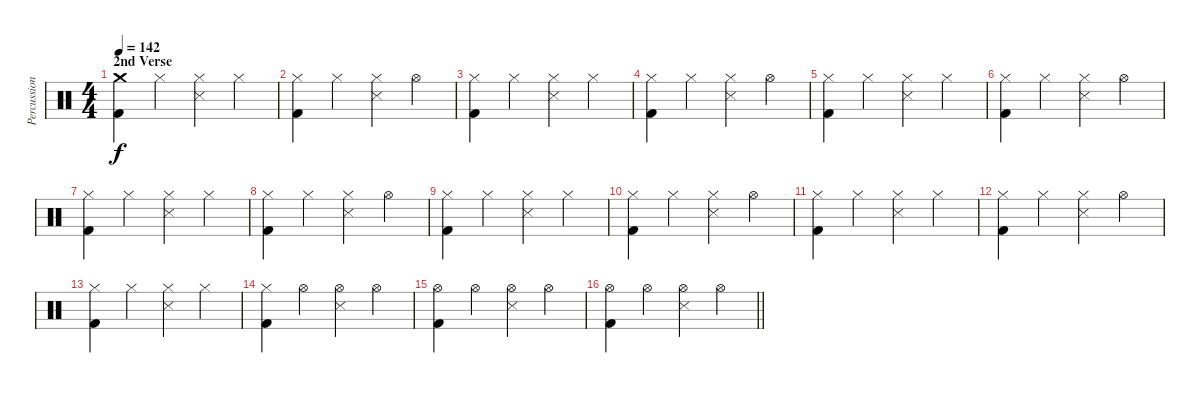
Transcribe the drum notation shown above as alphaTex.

\track ("Percussions" "Percussion") {instrument percussion}
\staff {score}
\articulation defaults
\ts (4 4)
\section ("" "2nd Verse")
\tempo 142
\clef neutral
\ks c
("Crash medium (hit)" "Kick (hit) 2").4{dy f} "Hi-Hat (closed)".4 ("Hi-Hat (closed)" "Metronome (hit)").4 "Hi-Hat (closed)".4 |
("Hi-Hat (closed)" "Kick (hit) 2").4 "Hi-Hat (closed)".4 ("Hi-Hat (closed)" "Metronome (hit)").4 "Hi-Hat (open)".4 |
("Hi-Hat (closed)" "Kick (hit) 2").4 "Hi-Hat (closed)".4 ("Hi-Hat (closed)" "Metronome (hit)").4 "Hi-Hat (closed)".4 |
("Hi-Hat (closed)" "Kick (hit) 2").4 "Hi-Hat (closed)".4 ("Hi-Hat (closed)" "Metronome (hit)").4 "Hi-Hat (open)".4 |
("Hi-Hat (closed)" "Kick (hit) 2").4 "Hi-Hat (closed)".4 ("Hi-Hat (closed)" "Metronome (hit)").4 "Hi-Hat (closed)".4 |
("Hi-Hat (closed)" "Kick (hit) 2").4 "Hi-Hat (closed)".4 ("Hi-Hat (closed)" "Metronome (hit)").4 "Hi-Hat (open)".4 |
("Hi-Hat (closed)" "Kick (hit) 2").4 "Hi-Hat (closed)".4 ("Hi-Hat (closed)" "Metronome (hit)").4 "Hi-Hat (closed)".4 |
("Hi-Hat (closed)" "Kick (hit) 2").4 "Hi-Hat (closed)".4 ("Hi-Hat (closed)" "Metronome (hit)").4 "Hi-Hat (open)".4 |
("Hi-Hat (closed)" "Kick (hit) 2").4 "Hi-Hat (closed)".4 ("Hi-Hat (closed)" "Metronome (hit)").4 "Hi-Hat (closed)".4 |
("Hi-Hat (closed)" "Kick (hit) 2").4 "Hi-Hat (closed)".4 ("Hi-Hat (closed)" "Metronome (hit)").4 "Hi-Hat (open)".4 |
("Hi-Hat (closed)" "Kick (hit) 2").4 "Hi-Hat (closed)".4 ("Hi-Hat (closed)" "Metronome (hit)").4 "Hi-Hat (closed)".4 |
("Hi-Hat (closed)" "Kick (hit) 2").4 "Hi-Hat (closed)".4 ("Hi-Hat (closed)" "Metronome (hit)").4 "Hi-Hat (open)".4 |
("Hi-Hat (closed)" "Kick (hit) 2").4 "Hi-Hat (closed)".4 ("Hi-Hat (closed)" "Metronome (hit)").4 "Hi-Hat (closed)".4 |
("Hi-Hat (closed)" "Kick (hit) 2").4 "Hi-Hat (open)".4 ("Hi-Hat (open)" "Metronome (hit)").4 "Hi-Hat (open)".4 |
("Hi-Hat (open)" "Kick (hit) 2").4 "Hi-Hat (open)".4 ("Hi-Hat (open)" "Metronome (hit)").4 "Hi-Hat (open)".4 |
\barLineRight lightlight
("Hi-Hat (open)" "Kick (hit) 2").4 "Hi-Hat (open)".4 ("Hi-Hat (open)" "Metronome (hit)").4 "Hi-Hat (open)".4
